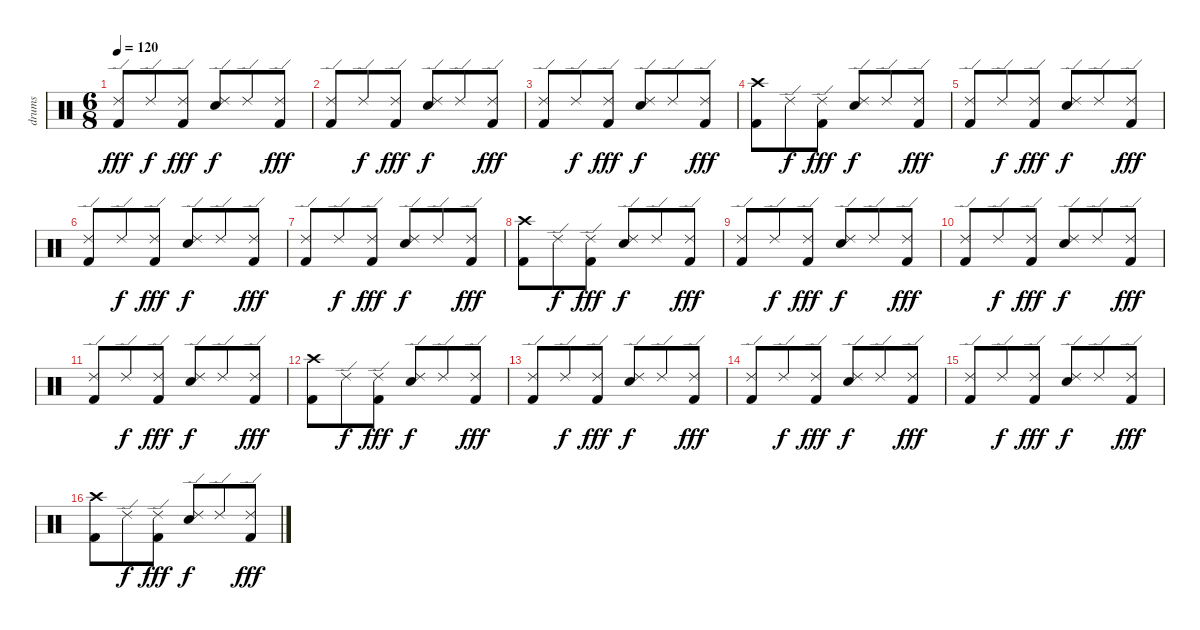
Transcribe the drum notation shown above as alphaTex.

\track ("drums" "drums") {instrument percussion}
\staff {score}
\articulation defaults
\ts (6 8)
\tempo 120
\clef neutral
\ks c
("Ride (edge) 2" "Kick (hit) 2").8{dy fff} "Ride (edge) 2".8{dy f} ("Ride (edge) 2" "Kick (hit) 2").8{dy fff} ("Ride (edge) 2" "Snare (hit) 2").8{dy f} "Ride (edge) 2".8 ("Ride (edge) 2" "Kick (hit) 2").8{dy fff} |
("Ride (edge) 2" "Kick (hit) 2").8 "Ride (edge) 2".8{dy f} ("Ride (edge) 2" "Kick (hit) 2").8{dy fff} ("Ride (edge) 2" "Snare (hit) 2").8{dy f} "Ride (edge) 2".8 ("Ride (edge) 2" "Kick (hit) 2").8{dy fff} |
("Ride (edge) 2" "Kick (hit) 2").8 "Ride (edge) 2".8{dy f} ("Ride (edge) 2" "Kick (hit) 2").8{dy fff} ("Ride (edge) 2" "Snare (hit) 2").8{dy f} "Ride (edge) 2".8 ("Ride (edge) 2" "Kick (hit) 2").8{dy fff} |
("Crash high (hit)" "Kick (hit) 2").8 "Ride (edge) 2".8{dy f} ("Ride (edge) 2" "Kick (hit) 2").8{dy fff} ("Ride (edge) 2" "Snare (hit) 2").8{dy f} "Ride (edge) 2".8 ("Ride (edge) 2" "Kick (hit) 2").8{dy fff} |
("Ride (edge) 2" "Kick (hit) 2").8 "Ride (edge) 2".8{dy f} ("Ride (edge) 2" "Kick (hit) 2").8{dy fff} ("Ride (edge) 2" "Snare (hit) 2").8{dy f} "Ride (edge) 2".8 ("Ride (edge) 2" "Kick (hit) 2").8{dy fff} |
("Ride (edge) 2" "Kick (hit) 2").8 "Ride (edge) 2".8{dy f} ("Ride (edge) 2" "Kick (hit) 2").8{dy fff} ("Ride (edge) 2" "Snare (hit) 2").8{dy f} "Ride (edge) 2".8 ("Ride (edge) 2" "Kick (hit) 2").8{dy fff} |
("Ride (edge) 2" "Kick (hit) 2").8 "Ride (edge) 2".8{dy f} ("Ride (edge) 2" "Kick (hit) 2").8{dy fff} ("Ride (edge) 2" "Snare (hit) 2").8{dy f} "Ride (edge) 2".8 ("Ride (edge) 2" "Kick (hit) 2").8{dy fff} |
("Crash high (hit)" "Kick (hit) 2").8 "Ride (edge) 2".8{dy f} ("Ride (edge) 2" "Kick (hit) 2").8{dy fff} ("Ride (edge) 2" "Snare (hit) 2").8{dy f} "Ride (edge) 2".8 ("Ride (edge) 2" "Kick (hit) 2").8{dy fff} |
("Ride (edge) 2" "Kick (hit) 2").8 "Ride (edge) 2".8{dy f} ("Ride (edge) 2" "Kick (hit) 2").8{dy fff} ("Ride (edge) 2" "Snare (hit) 2").8{dy f} "Ride (edge) 2".8 ("Ride (edge) 2" "Kick (hit) 2").8{dy fff} |
("Ride (edge) 2" "Kick (hit) 2").8 "Ride (edge) 2".8{dy f} ("Ride (edge) 2" "Kick (hit) 2").8{dy fff} ("Ride (edge) 2" "Snare (hit) 2").8{dy f} "Ride (edge) 2".8 ("Ride (edge) 2" "Kick (hit) 2").8{dy fff} |
("Ride (edge) 2" "Kick (hit) 2").8 "Ride (edge) 2".8{dy f} ("Ride (edge) 2" "Kick (hit) 2").8{dy fff} ("Ride (edge) 2" "Snare (hit) 2").8{dy f} "Ride (edge) 2".8 ("Ride (edge) 2" "Kick (hit) 2").8{dy fff} |
("Crash high (hit)" "Kick (hit) 2").8 "Ride (edge) 2".8{dy f} ("Ride (edge) 2" "Kick (hit) 2").8{dy fff} ("Ride (edge) 2" "Snare (hit) 2").8{dy f} "Ride (edge) 2".8 ("Ride (edge) 2" "Kick (hit) 2").8{dy fff} |
("Ride (edge) 2" "Kick (hit) 2").8 "Ride (edge) 2".8{dy f} ("Ride (edge) 2" "Kick (hit) 2").8{dy fff} ("Ride (edge) 2" "Snare (hit) 2").8{dy f} "Ride (edge) 2".8 ("Ride (edge) 2" "Kick (hit) 2").8{dy fff} |
("Ride (edge) 2" "Kick (hit) 2").8 "Ride (edge) 2".8{dy f} ("Ride (edge) 2" "Kick (hit) 2").8{dy fff} ("Ride (edge) 2" "Snare (hit) 2").8{dy f} "Ride (edge) 2".8 ("Ride (edge) 2" "Kick (hit) 2").8{dy fff} |
("Ride (edge) 2" "Kick (hit) 2").8 "Ride (edge) 2".8{dy f} ("Ride (edge) 2" "Kick (hit) 2").8{dy fff} ("Ride (edge) 2" "Snare (hit) 2").8{dy f} "Ride (edge) 2".8 ("Ride (edge) 2" "Kick (hit) 2").8{dy fff} |
("Crash high (hit)" "Kick (hit) 2").8 "Ride (edge) 2".8{dy f} ("Ride (edge) 2" "Kick (hit) 2").8{dy fff} ("Ride (edge) 2" "Snare (hit) 2").8{dy f} "Ride (edge) 2".8 ("Ride (edge) 2" "Kick (hit) 2").8{dy fff}
